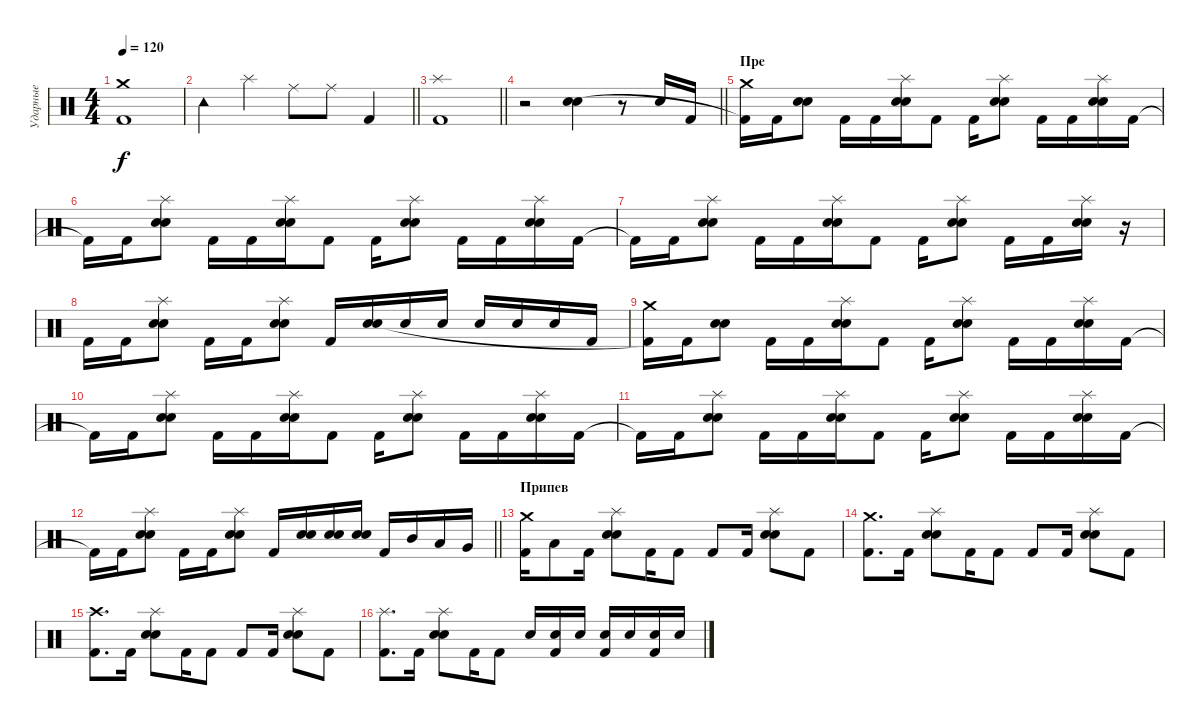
\track ("Ударные" "Ударные") {instrument percussion}
\staff {score}
\articulation defaults
\ts (4 4)
\tempo 120
\clef neutral
\ks c
("Crash medium (hit)" "Kick (hit) 2").1{dy f} |
\barLineRight lightlight "Tambourine (hit)".4 "Splash (hit)".4 "Ride (middle)".8 "Ride (middle)".8 "Kick (hit) 2".4
|
\barLineRight lightlight
("Splash (hit)" "Kick (hit) 2").1 |
\barLineRight lightlight
r.2 ("Electric Snare (hit)" "Snare (hit) 2").4 r.8 "Electric Snare (hit)".16 "Kick (hit) 2".16 |
\section ("" "Пре")
("Crash medium (hit)" "Kick (hit) 2"{t}).16 "Kick (hit) 2".16 ("Electric Snare (hit)" "Snare (hit) 2").8 "Kick (hit) 2".16 "Kick (hit) 2".16 ("Splash (hit)" "Electric Snare (hit)" "Snare (hit) 2").16 "Kick (hit) 2".8 "Kick (hit) 2".16 ("Splash (hit)" "Electric Snare (hit)" "Snare (hit) 2").8 "Kick (hit) 2".16 "Kick (hit) 2".16 ("Splash (hit)" "Electric Snare (hit)" "Snare (hit) 2").16 "Kick (hit) 2".16 |
"Kick (hit) 2"{t}.16 "Kick (hit) 2".16 ("Splash (hit)" "Electric Snare (hit)" "Snare (hit) 2").8 "Kick (hit) 2".16 "Kick (hit) 2".16 ("Splash (hit)" "Electric Snare (hit)" "Snare (hit) 2").16 "Kick (hit) 2".8 "Kick (hit) 2".16 ("Splash (hit)" "Electric Snare (hit)" "Snare (hit) 2").8 "Kick (hit) 2".16 "Kick (hit) 2".16 ("Splash (hit)" "Electric Snare (hit)" "Snare (hit) 2").16 "Kick (hit) 2".16 |
"Kick (hit) 2"{t}.16 "Kick (hit) 2".16 ("Splash (hit)" "Electric Snare (hit)" "Snare (hit) 2").8 "Kick (hit) 2".16 "Kick (hit) 2".16 ("Splash (hit)" "Electric Snare (hit)" "Snare (hit) 2").16 "Kick (hit) 2".8 "Kick (hit) 2".16 ("Splash (hit)" "Electric Snare (hit)" "Snare (hit) 2").8 "Kick (hit) 2".16 "Kick (hit) 2".16 ("Splash (hit)" "Electric Snare (hit)" "Snare (hit) 2").16 r.16 |
"Kick (hit) 2".16 "Kick (hit) 2".16 ("Splash (hit)" "Electric Snare (hit)" "Snare (hit) 2").8 "Kick (hit) 2".16 "Kick (hit) 2".16 ("Splash (hit)" "Electric Snare (hit)" "Snare (hit) 2").8 "Kick (hit) 2".16 ("Electric Snare (hit)" "Snare (hit) 2").16 "Electric Snare (hit)".16 "Electric Snare (hit)".16 "Electric Snare (hit)".16 "Electric Snare (hit)".16 "Electric Snare (hit)".16 "Kick (hit) 2".16 |
("Crash medium (hit)" "Kick (hit) 2"{t}).16 "Kick (hit) 2".16 ("Electric Snare (hit)" "Snare (hit) 2").8 "Kick (hit) 2".16 "Kick (hit) 2".16 ("Splash (hit)" "Electric Snare (hit)" "Snare (hit) 2").16 "Kick (hit) 2".8 "Kick (hit) 2".16 ("Splash (hit)" "Electric Snare (hit)" "Snare (hit) 2").8 "Kick (hit) 2".16 "Kick (hit) 2".16 ("Splash (hit)" "Electric Snare (hit)" "Snare (hit) 2").16 "Kick (hit) 2".16 |
"Kick (hit) 2"{t}.16 "Kick (hit) 2".16 ("Splash (hit)" "Electric Snare (hit)" "Snare (hit) 2").8 "Kick (hit) 2".16 "Kick (hit) 2".16 ("Splash (hit)" "Electric Snare (hit)" "Snare (hit) 2").16 "Kick (hit) 2".8 "Kick (hit) 2".16 ("Splash (hit)" "Electric Snare (hit)" "Snare (hit) 2").8 "Kick (hit) 2".16 "Kick (hit) 2".16 ("Splash (hit)" "Electric Snare (hit)" "Snare (hit) 2").16 "Kick (hit) 2".16 |
"Kick (hit) 2"{t}.16 "Kick (hit) 2".16 ("Splash (hit)" "Electric Snare (hit)" "Snare (hit) 2").8 "Kick (hit) 2".16 "Kick (hit) 2".16 ("Splash (hit)" "Electric Snare (hit)" "Snare (hit) 2").16 "Kick (hit) 2".8 "Kick (hit) 2".16 ("Splash (hit)" "Electric Snare (hit)" "Snare (hit) 2").8 "Kick (hit) 2".16 "Kick (hit) 2".16 ("Splash (hit)" "Electric Snare (hit)" "Snare (hit) 2").16 "Kick (hit) 2".16 |
\barLineRight lightlight "Kick (hit) 2"{t}.16 "Kick (hit) 2".16
("Splash (hit)" "Electric Snare (hit)" "Snare (hit) 2").8 "Kick (hit) 2".16 "Kick (hit) 2".16 ("Splash (hit)" "Electric Snare (hit)" "Snare (hit) 2").8 "Kick (hit) 2".16 ("Electric Snare (hit)" "Snare (hit) 2").16 ("Electric Snare (hit)" "Snare (hit) 2").16 ("Electric Snare (hit)" "Snare (hit) 2").16 "Kick (hit) 2".16 "Mid Tom (hit)".16 "Low Tom (hit)".16 "Very Low Tom (hit)".16 |
\section ("" "Припев")
("Crash medium (hit)" "Kick (hit) 2").16 "Low Tom (hit)".8 "Kick (hit) 2".16 ("Splash (hit)" "Electric Snare (hit)" "Snare (hit) 2").8 "Kick (hit) 2".16 "Kick (hit) 2".8 "Kick (hit) 2".8 "Kick (hit) 2".16 ("Splash (hit)" "Electric Snare (hit)" "Snare (hit) 2").8 "Kick (hit) 2".8 |
("Crash medium (hit)" "Kick (hit) 2").8{d} "Kick (hit) 2".16 ("Splash (hit)" "Electric Snare (hit)" "Snare (hit) 2").8 "Kick (hit) 2".16 "Kick (hit) 2".8 "Kick (hit) 2".8 "Kick (hit) 2".16 ("Splash (hit)" "Electric Snare (hit)" "Snare (hit) 2").8 "Kick (hit) 2".8 |
("Crash high (hit)" "Kick (hit) 2").8{d} "Kick (hit) 2".16 ("Splash (hit)" "Electric Snare (hit)" "Snare (hit) 2").8 "Kick (hit) 2".16 "Kick (hit) 2".8 "Kick (hit) 2".8 "Kick (hit) 2".16 ("Splash (hit)" "Electric Snare (hit)" "Snare (hit) 2").8 "Kick (hit) 2".8 |
("Splash (hit)" "Kick (hit) 2").8{d} "Kick (hit) 2".16 ("Splash (hit)" "Electric Snare (hit)" "Snare (hit) 2").8 "Kick (hit) 2".16 "Kick (hit) 2".8 "Electric Snare (hit)".16 ("Electric Snare (hit)" "Kick (hit) 2").16 "Electric Snare (hit)".16 ("Electric Snare (hit)" "Kick (hit) 2").16 "Electric Snare (hit)".16 ("Electric Snare (hit)" "Kick (hit) 2").16 "Electric Snare (hit)".16
